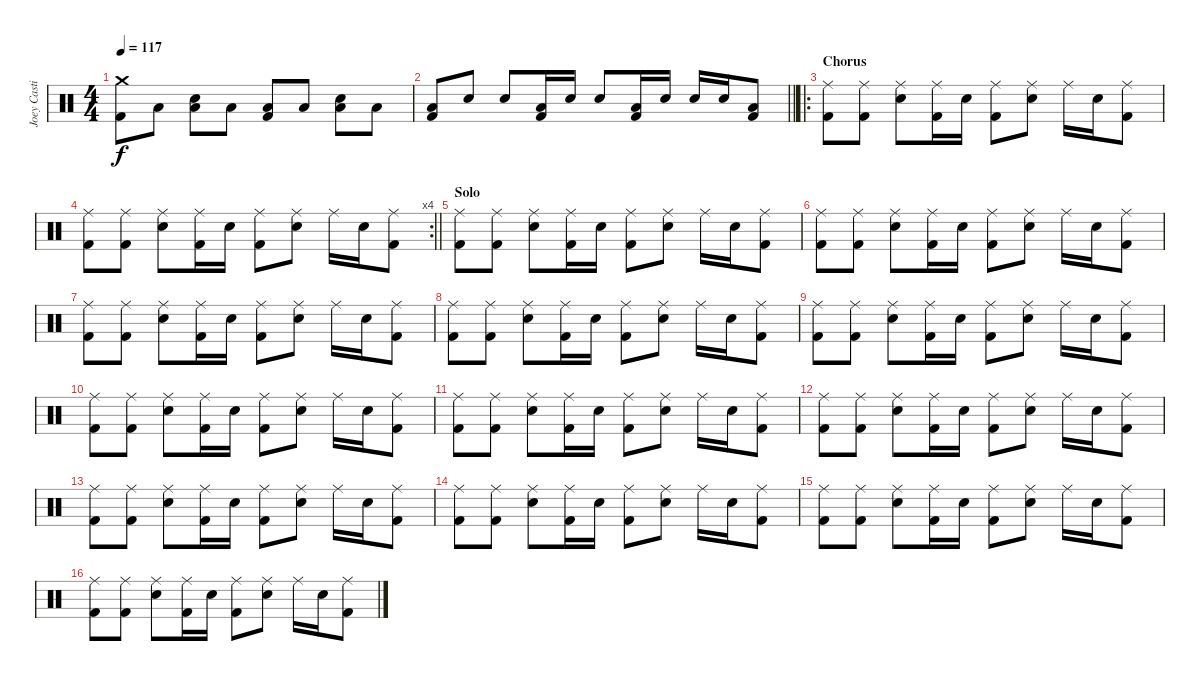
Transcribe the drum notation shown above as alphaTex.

\track ("Joey Castillo" "Joey Casti") {instrument percussion}
\staff {score}
\articulation defaults
\ts (4 4)
\tempo 117
\clef neutral
\ks c
("Crash medium (hit)" "Kick (hit) 2").8{dy f} "Low Floor Tom (hit)".8 ("Low Floor Tom (hit)" "Snare (hit) 2").8 "Low Floor Tom (hit)".8 ("Low Floor Tom (hit)" "Kick (hit) 2").8 "Low Floor Tom (hit)".8 ("Low Floor Tom (hit)" "Snare (hit) 2").8 "Low Floor Tom (hit)".8 |
\barLineRight lightlight
("Low Floor Tom (hit)" "Kick (hit) 2").8 "Snare (hit) 2".8 "Snare (hit) 2".8 ("Low Floor Tom (hit)" "Kick (hit) 2").16 "Snare (hit) 2".16 "Snare (hit) 2".8 ("Low Floor Tom (hit)" "Kick (hit) 2").16 "Snare (hit) 2".16 "Snare (hit) 2".16 "Snare (hit) 2".16 ("Low Floor Tom (hit)" "Kick (hit) 2").8 |
\ro
\section ("" "Chorus")
("Ride (middle)" "Kick (hit) 2").8 ("Ride (middle)" "Kick (hit) 2").8 ("Ride (middle)" "Snare (hit) 2").8 ("Ride (middle)" "Kick (hit) 2").16 "Snare (hit) 2".16 ("Ride (middle)" "Kick (hit) 2").8 ("Ride (middle)" "Snare (hit) 2").8 "Ride (middle)".16 "Snare (hit) 2".16 ("Ride (middle)" "Kick (hit) 2").8 |
\rc 4
\barLineRight lightlight
("Ride (middle)" "Kick (hit) 2").8 ("Ride (middle)" "Kick (hit) 2").8 ("Ride (middle)" "Snare (hit) 2").8 ("Ride (middle)" "Kick (hit) 2").16 "Snare (hit) 2".16 ("Ride (middle)" "Kick (hit) 2").8 ("Ride (middle)" "Snare (hit) 2").8 "Ride (middle)".16 "Snare (hit) 2".16 ("Ride (middle)" "Kick (hit) 2").8 |
\section ("" "Solo")
("Ride (middle)" "Kick (hit) 2").8 ("Ride (middle)" "Kick (hit) 2").8 ("Ride (middle)" "Snare (hit) 2").8 ("Ride (middle)" "Kick (hit) 2").16 "Snare (hit) 2".16 ("Ride (middle)" "Kick (hit) 2").8 ("Ride (middle)" "Snare (hit) 2").8 "Ride (middle)".16 "Snare (hit) 2".16 ("Ride (middle)" "Kick (hit) 2").8 |
("Ride (middle)" "Kick (hit) 2").8 ("Ride (middle)" "Kick (hit) 2").8 ("Ride (middle)" "Snare (hit) 2").8 ("Ride (middle)" "Kick (hit) 2").16 "Snare (hit) 2".16 ("Ride (middle)" "Kick (hit) 2").8 ("Ride (middle)" "Snare (hit) 2").8 "Ride (middle)".16 "Snare (hit) 2".16 ("Ride (middle)" "Kick (hit) 2").8 |
("Ride (middle)" "Kick (hit) 2").8 ("Ride (middle)" "Kick (hit) 2").8 ("Ride (middle)" "Snare (hit) 2").8 ("Ride (middle)" "Kick (hit) 2").16 "Snare (hit) 2".16 ("Ride (middle)" "Kick (hit) 2").8 ("Ride (middle)" "Snare (hit) 2").8 "Ride (middle)".16 "Snare (hit) 2".16 ("Ride (middle)" "Kick (hit) 2").8 |
("Ride (middle)" "Kick (hit) 2").8 ("Ride (middle)" "Kick (hit) 2").8 ("Ride (middle)" "Snare (hit) 2").8 ("Ride (middle)" "Kick (hit) 2").16 "Snare (hit) 2".16 ("Ride (middle)" "Kick (hit) 2").8 ("Ride (middle)" "Snare (hit) 2").8 "Ride (middle)".16 "Snare (hit) 2".16 ("Ride (middle)" "Kick (hit) 2").8 |
("Ride (middle)" "Kick (hit) 2").8 ("Ride (middle)" "Kick (hit) 2").8 ("Ride (middle)" "Snare (hit) 2").8 ("Ride (middle)" "Kick (hit) 2").16 "Snare (hit) 2".16 ("Ride (middle)" "Kick (hit) 2").8 ("Ride (middle)" "Snare (hit) 2").8 "Ride (middle)".16 "Snare (hit) 2".16 ("Ride (middle)" "Kick (hit) 2").8 |
("Ride (middle)" "Kick (hit) 2").8 ("Ride (middle)" "Kick (hit) 2").8 ("Ride (middle)" "Snare (hit) 2").8 ("Ride (middle)" "Kick (hit) 2").16 "Snare (hit) 2".16 ("Ride (middle)" "Kick (hit) 2").8 ("Ride (middle)" "Snare (hit) 2").8 "Ride (middle)".16 "Snare (hit) 2".16 ("Ride (middle)" "Kick (hit) 2").8 |
("Ride (middle)" "Kick (hit) 2").8 ("Ride (middle)" "Kick (hit) 2").8 ("Ride (middle)" "Snare (hit) 2").8 ("Ride (middle)" "Kick (hit) 2").16 "Snare (hit) 2".16 ("Ride (middle)" "Kick (hit) 2").8 ("Ride (middle)" "Snare (hit) 2").8 "Ride (middle)".16 "Snare (hit) 2".16 ("Ride (middle)" "Kick (hit) 2").8 |
("Ride (middle)" "Kick (hit) 2").8 ("Ride (middle)" "Kick (hit) 2").8 ("Ride (middle)" "Snare (hit) 2").8 ("Ride (middle)" "Kick (hit) 2").16 "Snare (hit) 2".16 ("Ride (middle)" "Kick (hit) 2").8 ("Ride (middle)" "Snare (hit) 2").8 "Ride (middle)".16 "Snare (hit) 2".16 ("Ride (middle)" "Kick (hit) 2").8 |
("Ride (middle)" "Kick (hit) 2").8 ("Ride (middle)" "Kick (hit) 2").8 ("Ride (middle)" "Snare (hit) 2").8 ("Ride (middle)" "Kick (hit) 2").16 "Snare (hit) 2".16 ("Ride (middle)" "Kick (hit) 2").8 ("Ride (middle)" "Snare (hit) 2").8 "Ride (middle)".16 "Snare (hit) 2".16 ("Ride (middle)" "Kick (hit) 2").8 |
("Ride (middle)" "Kick (hit) 2").8 ("Ride (middle)" "Kick (hit) 2").8 ("Ride (middle)" "Snare (hit) 2").8 ("Ride (middle)" "Kick (hit) 2").16 "Snare (hit) 2".16 ("Ride (middle)" "Kick (hit) 2").8 ("Ride (middle)" "Snare (hit) 2").8 "Ride (middle)".16 "Snare (hit) 2".16 ("Ride (middle)" "Kick (hit) 2").8 |
("Ride (middle)" "Kick (hit) 2").8 ("Ride (middle)" "Kick (hit) 2").8 ("Ride (middle)" "Snare (hit) 2").8 ("Ride (middle)" "Kick (hit) 2").16 "Snare (hit) 2".16 ("Ride (middle)" "Kick (hit) 2").8 ("Ride (middle)" "Snare (hit) 2").8 "Ride (middle)".16 "Snare (hit) 2".16 ("Ride (middle)" "Kick (hit) 2").8 |
("Ride (middle)" "Kick (hit) 2").8 ("Ride (middle)" "Kick (hit) 2").8 ("Ride (middle)" "Snare (hit) 2").8 ("Ride (middle)" "Kick (hit) 2").16 "Snare (hit) 2".16 ("Ride (middle)" "Kick (hit) 2").8 ("Ride (middle)" "Snare (hit) 2").8 "Ride (middle)".16 "Snare (hit) 2".16 ("Ride (middle)" "Kick (hit) 2").8
